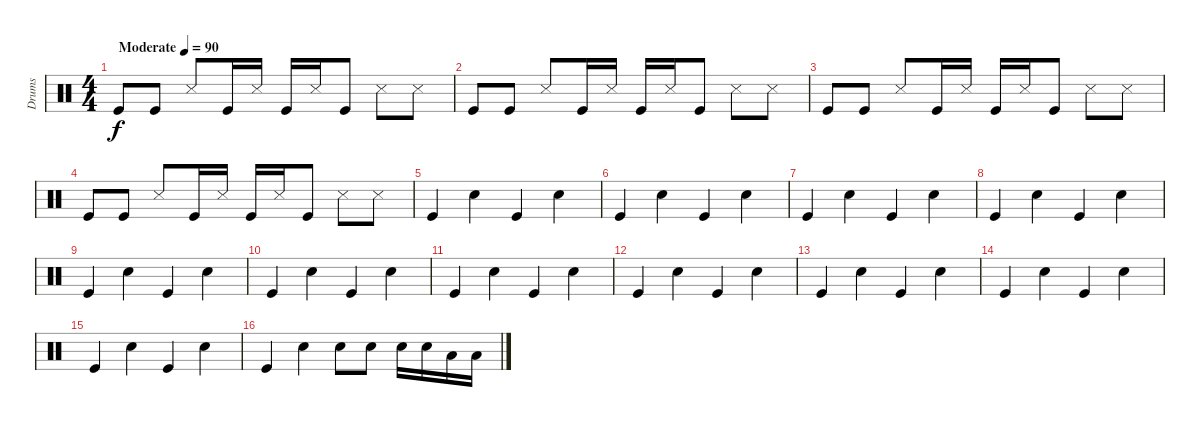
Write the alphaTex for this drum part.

\track ("Drums" "Drums") {instrument percussion}
\staff {score}
\articulation defaults
\ts (4 4)
\tempo (90 "Moderate")
\clef neutral
\ks c "Kick (hit)".8{dy f} "Kick (hit)".8 "Metronome (hit)".8 "Kick (hit)".16 "Metronome (hit)".16 "Kick (hit)".16 "Metronome (hit)".16 "Kick (hit)".8 "Metronome (hit)".8 "Metronome (hit)".8
|
"Kick (hit)".8 "Kick (hit)".8 "Metronome (hit)".8 "Kick (hit)".16 "Metronome (hit)".16 "Kick (hit)".16 "Metronome (hit)".16 "Kick (hit)".8 "Metronome (hit)".8 "Metronome (hit)".8 |
"Kick (hit)".8 "Kick (hit)".8 "Metronome (hit)".8 "Kick (hit)".16 "Metronome (hit)".16 "Kick (hit)".16 "Metronome (hit)".16 "Kick (hit)".8 "Metronome (hit)".8 "Metronome (hit)".8 |
"Kick (hit)".8 "Kick (hit)".8 "Metronome (hit)".8 "Kick (hit)".16 "Metronome (hit)".16 "Kick (hit)".16 "Metronome (hit)".16 "Kick (hit)".8 "Metronome (hit)".8 "Metronome (hit)".8 |
"Kick (hit)".4 "Hand Clap (hit)".4 "Kick (hit)".4 "Hand Clap (hit)".4 |
"Kick (hit)".4 "Hand Clap (hit)".4 "Kick (hit)".4 "Hand Clap (hit)".4 |
"Kick (hit)".4 "Hand Clap (hit)".4 "Kick (hit)".4 "Hand Clap (hit)".4 |
"Kick (hit)".4 "Hand Clap (hit)".4 "Kick (hit)".4 "Hand Clap (hit)".4 |
"Kick (hit)".4 "Hand Clap (hit)".4 "Kick (hit)".4 "Hand Clap (hit)".4 |
"Kick (hit)".4 "Hand Clap (hit)".4 "Kick (hit)".4 "Hand Clap (hit)".4 |
"Kick (hit)".4 "Hand Clap (hit)".4 "Kick (hit)".4 "Hand Clap (hit)".4 |
"Kick (hit)".4 "Hand Clap (hit)".4 "Kick (hit)".4 "Hand Clap (hit)".4 |
"Kick (hit)".4 "Hand Clap (hit)".4 "Kick (hit)".4 "Hand Clap (hit)".4 |
"Kick (hit)".4 "Hand Clap (hit)".4 "Kick (hit)".4 "Hand Clap (hit)".4 |
"Kick (hit)".4 "Hand Clap (hit)".4 "Kick (hit)".4 "Hand Clap (hit)".4 |
"Kick (hit)".4 "Hand Clap (hit)".4 "Hand Clap (hit)".8 "Hand Clap (hit)".8 "Snare (hit) 2".16 "Snare (hit) 2".16 "Low Tom (hit)".16 "Low Tom (hit)".16
